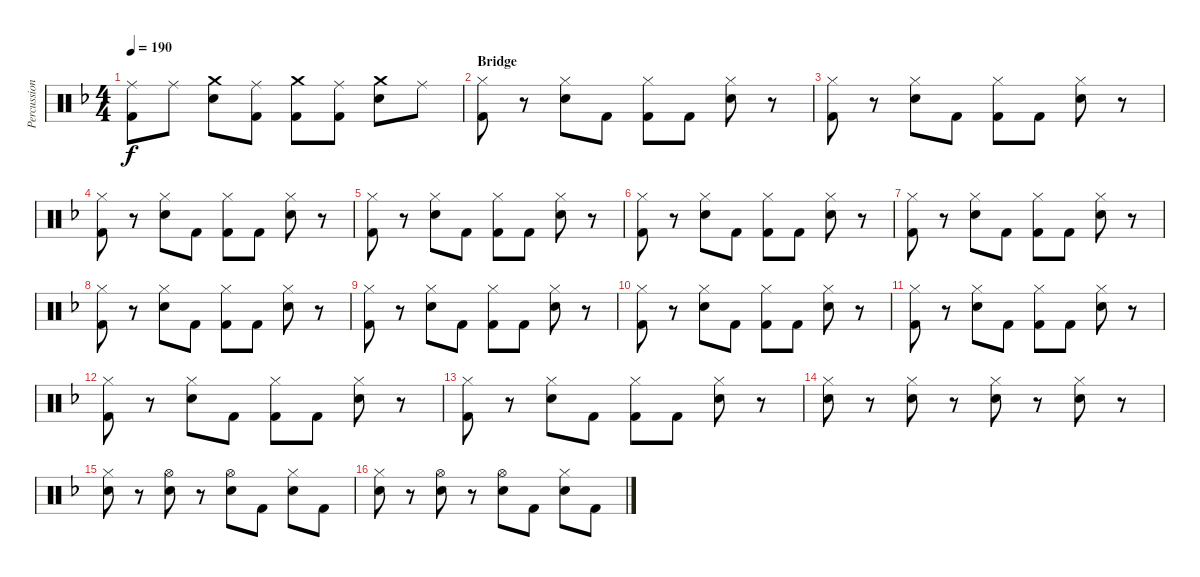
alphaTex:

\track ("Percussion" "Percussion") {instrument percussion}
\staff {score}
\articulation defaults
\ts (4 4)
\tempo 190
\clef neutral
\ks f
("Ride (middle)" "Kick (hit) 2").8{dy f} "Ride (middle)".8 ("Crash medium (hit)" "Snare (hit) 2").8 ("Ride (middle)" "Kick (hit) 2").8 ("Crash medium (hit)" "Kick (hit) 2").8 ("Ride (middle)" "Kick (hit) 2").8 ("Crash medium (hit)" "Snare (hit) 2").8 "Ride (middle)".8 |
\section ("" "Bridge")
("Hi-Hat (closed)" "Kick (hit) 2").8{volume 8} r.8 ("Hi-Hat (closed)" "Snare (hit) 2").8 "Kick (hit) 2".8 ("Hi-Hat (closed)" "Kick (hit) 2").8 "Kick (hit) 2".8 ("Hi-Hat (closed)" "Snare (hit) 2").8 r.8 |
("Hi-Hat (closed)" "Kick (hit) 2").8{volume 8} r.8 ("Hi-Hat (closed)" "Snare (hit) 2").8 "Kick (hit) 2".8 ("Hi-Hat (closed)" "Kick (hit) 2").8 "Kick (hit) 2".8 ("Hi-Hat (closed)" "Snare (hit) 2").8 r.8 |
("Hi-Hat (closed)" "Kick (hit) 2").8{volume 8} r.8 ("Hi-Hat (closed)" "Snare (hit) 2").8 "Kick (hit) 2".8 ("Hi-Hat (closed)" "Kick (hit) 2").8 "Kick (hit) 2".8 ("Hi-Hat (closed)" "Snare (hit) 2").8 r.8 |
("Hi-Hat (closed)" "Kick (hit) 2").8{volume 8} r.8 ("Hi-Hat (closed)" "Snare (hit) 2").8 "Kick (hit) 2".8 ("Hi-Hat (closed)" "Kick (hit) 2").8 "Kick (hit) 2".8 ("Hi-Hat (closed)" "Snare (hit) 2").8 r.8 |
("Hi-Hat (closed)" "Kick (hit) 2").8{volume 8} r.8 ("Hi-Hat (closed)" "Snare (hit) 2").8 "Kick (hit) 2".8 ("Hi-Hat (closed)" "Kick (hit) 2").8 "Kick (hit) 2".8 ("Hi-Hat (closed)" "Snare (hit) 2").8 r.8 |
("Hi-Hat (closed)" "Kick (hit) 2").8{volume 8} r.8 ("Hi-Hat (closed)" "Snare (hit) 2").8 "Kick (hit) 2".8 ("Hi-Hat (closed)" "Kick (hit) 2").8 "Kick (hit) 2".8 ("Hi-Hat (closed)" "Snare (hit) 2").8 r.8 |
("Hi-Hat (closed)" "Kick (hit) 2").8{volume 8} r.8 ("Hi-Hat (closed)" "Snare (hit) 2").8 "Kick (hit) 2".8 ("Hi-Hat (closed)" "Kick (hit) 2").8 "Kick (hit) 2".8 ("Hi-Hat (closed)" "Snare (hit) 2").8 r.8 |
("Hi-Hat (closed)" "Kick (hit) 2").8{volume 8} r.8 ("Hi-Hat (closed)" "Snare (hit) 2").8 "Kick (hit) 2".8 ("Hi-Hat (closed)" "Kick (hit) 2").8 "Kick (hit) 2".8 ("Hi-Hat (closed)" "Snare (hit) 2").8 r.8 |
("Hi-Hat (closed)" "Kick (hit) 2").8{volume 8} r.8 ("Hi-Hat (closed)" "Snare (hit) 2").8 "Kick (hit) 2".8 ("Hi-Hat (closed)" "Kick (hit) 2").8 "Kick (hit) 2".8 ("Hi-Hat (closed)" "Snare (hit) 2").8 r.8 |
("Hi-Hat (closed)" "Kick (hit) 2").8{volume 8} r.8 ("Hi-Hat (closed)" "Snare (hit) 2").8 "Kick (hit) 2".8 ("Hi-Hat (closed)" "Kick (hit) 2").8 "Kick (hit) 2".8 ("Hi-Hat (closed)" "Snare (hit) 2").8 r.8 |
("Hi-Hat (closed)" "Kick (hit) 2").8{volume 8} r.8 ("Hi-Hat (closed)" "Snare (hit) 2").8 "Kick (hit) 2".8 ("Hi-Hat (closed)" "Kick (hit) 2").8 "Kick (hit) 2".8 ("Hi-Hat (closed)" "Snare (hit) 2").8 r.8 |
("Hi-Hat (closed)" "Kick (hit) 2").8{volume 8} r.8 ("Hi-Hat (closed)" "Snare (hit) 2").8 "Kick (hit) 2".8 ("Hi-Hat (closed)" "Kick (hit) 2").8 "Kick (hit) 2".8 ("Hi-Hat (closed)" "Snare (hit) 2").8 r.8 |
("Hi-Hat (closed)" "Snare (hit) 2").8 r.8 ("Hi-Hat (closed)" "Snare (hit) 2").8 r.8 ("Hi-Hat (closed)" "Snare (hit) 2").8 r.8 ("Hi-Hat (closed)" "Snare (hit) 2").8 r.8 |
("Hi-Hat (closed)" "Snare (hit) 2").8{volume 13} r.8 ("Hi-Hat (open)" "Snare (hit) 2").8 r.8 ("Hi-Hat (open)" "Snare (hit) 2").8 "Kick (hit) 2".8 ("Hi-Hat (closed)" "Snare (hit) 2").8 "Kick (hit) 2".8 |
("Hi-Hat (closed)" "Snare (hit) 2").8 r.8 ("Hi-Hat (open)" "Snare (hit) 2").8 r.8 ("Hi-Hat (open)" "Snare (hit) 2").8 "Kick (hit) 2".8 ("Hi-Hat (closed)" "Snare (hit) 2").8 "Kick (hit) 2".8
